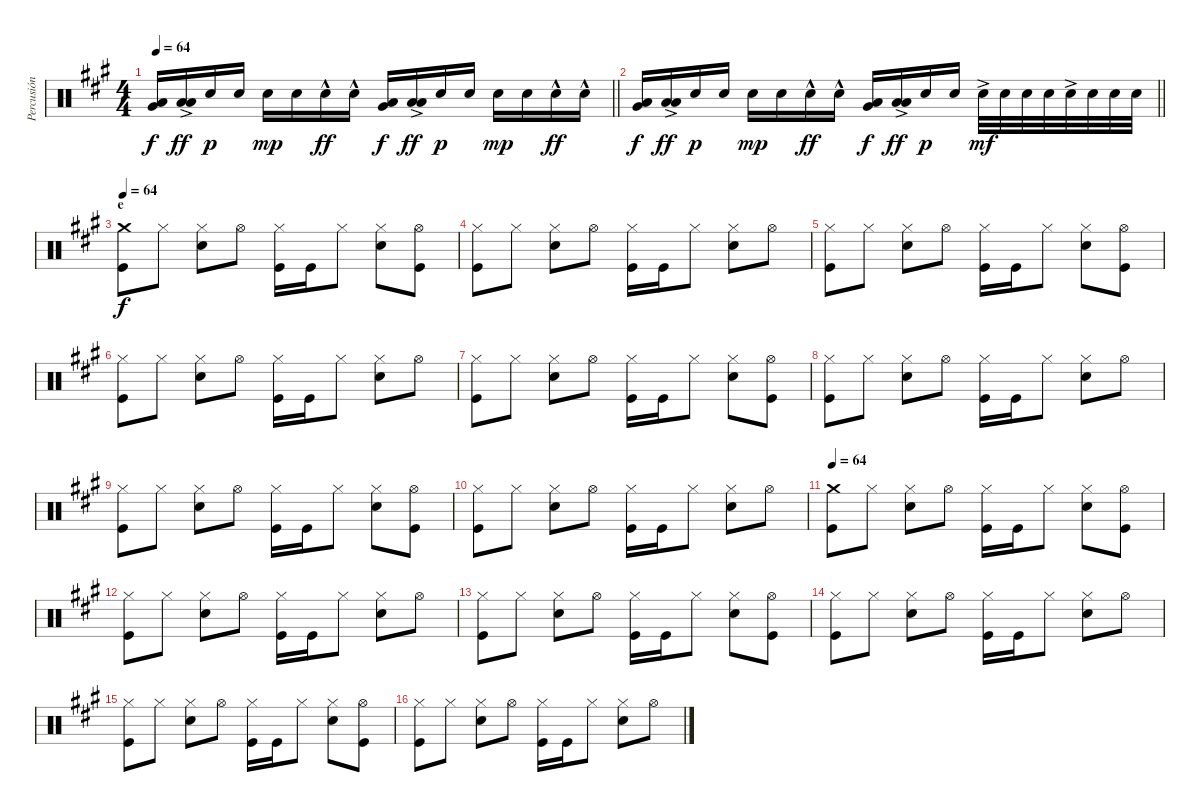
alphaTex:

\track ("Percusión" "Percusión") {instrument percussion}
\staff {score}
\articulation defaults
\ts (4 4)
\tempo 64
\clef neutral
\barLineRight lightlight
\ks a
("Very Low Tom (hit)" "Low Tom (hit)").16{dy f} ("Low Floor Tom (hit)" "Low Tom (hit)"{ac}).16{dy ff} "Snare (hit) 2".16{dy p} "Snare (hit) 2".16 "Snare (hit) 2".16{dy mp} "Snare (hit) 2".16 "Snare (hit) 2"{hac}.16{dy ff} "Snare (hit) 2"{hac}.16 ("Very Low Tom (hit)" "Low Tom (hit)").16{dy f} ("Low Floor Tom (hit)" "Low Tom (hit)"{ac}).16{dy ff} "Snare (hit) 2".16{dy p} "Snare (hit) 2".16 "Snare (hit) 2".16{dy mp} "Snare (hit) 2".16 "Snare (hit) 2"{hac}.16{dy ff} "Snare (hit) 2"{hac}.16 |
\barLineRight lightlight
("Very Low Tom (hit)" "Low Tom (hit)").16{dy f} ("Low Floor Tom (hit)" "Low Tom (hit)"{ac}).16{dy ff} "Snare (hit) 2".16{dy p} "Snare (hit) 2".16 "Snare (hit) 2".16{dy mp} "Snare (hit) 2".16 "Snare (hit) 2"{hac}.16{dy ff} "Snare (hit) 2"{hac}.16 ("Very Low Tom (hit)" "Low Tom (hit)").16{dy f} ("Low Floor Tom (hit)" "Low Tom (hit)"{ac}).16{dy ff} "Snare (hit) 2".16{dy p} "Snare (hit) 2".16 "Snare (hit) 2"{ac}.32{dy mf} "Snare (hit) 2".32 "Snare (hit) 2".32 "Snare (hit) 2".32 "Snare (hit) 2"{ac}.32 "Snare (hit) 2".32 "Snare (hit) 2".32 "Snare (hit) 2".32 |
\section ("" "e")
\tempo 64
("Kick (hit)" "Crash medium (hit)").8{dy f} "Hi-Hat (closed)".8 ("Hi-Hat (closed)" "Snare (hit) 2").8 "Hi-Hat (open)".8 ("Kick (hit)" "Hi-Hat (closed)").16 "Kick (hit)".16 "Hi-Hat (closed)".8 ("Hi-Hat (closed)" "Snare (hit) 2").8 ("Kick (hit)" "Hi-Hat (open)").8 |
("Hi-Hat (closed)" "Kick (hit)").8 "Hi-Hat (closed)".8 ("Hi-Hat (closed)" "Snare (hit) 2").8 "Hi-Hat (open)".8 ("Kick (hit)" "Hi-Hat (closed)").16 "Kick (hit)".16 "Hi-Hat (closed)".8 ("Hi-Hat (closed)" "Snare (hit) 2").8 "Hi-Hat (open)".8 |
("Hi-Hat (closed)" "Kick (hit)").8 "Hi-Hat (closed)".8 ("Hi-Hat (closed)" "Snare (hit) 2").8 "Hi-Hat (open)".8 ("Kick (hit)" "Hi-Hat (closed)").16 "Kick (hit)".16 "Hi-Hat (closed)".8 ("Hi-Hat (closed)" "Snare (hit) 2").8 ("Kick (hit)" "Hi-Hat (open)").8 |
("Hi-Hat (closed)" "Kick (hit)").8 "Hi-Hat (closed)".8 ("Hi-Hat (closed)" "Snare (hit) 2").8 "Hi-Hat (open)".8 ("Kick (hit)" "Hi-Hat (closed)").16 "Kick (hit)".16 "Hi-Hat (closed)".8 ("Hi-Hat (closed)" "Snare (hit) 2").8 "Hi-Hat (open)".8 |
("Hi-Hat (closed)" "Kick (hit)").8 "Hi-Hat (closed)".8 ("Hi-Hat (closed)" "Snare (hit) 2").8 "Hi-Hat (open)".8 ("Kick (hit)" "Hi-Hat (closed)").16 "Kick (hit)".16 "Hi-Hat (closed)".8 ("Hi-Hat (closed)" "Snare (hit) 2").8 ("Kick (hit)" "Hi-Hat (open)").8 |
("Hi-Hat (closed)" "Kick (hit)").8 "Hi-Hat (closed)".8 ("Hi-Hat (closed)" "Snare (hit) 2").8 "Hi-Hat (open)".8 ("Kick (hit)" "Hi-Hat (closed)").16 "Kick (hit)".16 "Hi-Hat (closed)".8 ("Hi-Hat (closed)" "Snare (hit) 2").8 "Hi-Hat (open)".8 |
("Hi-Hat (closed)" "Kick (hit)").8 "Hi-Hat (closed)".8 ("Hi-Hat (closed)" "Snare (hit) 2").8 "Hi-Hat (open)".8 ("Kick (hit)" "Hi-Hat (closed)").16 "Kick (hit)".16 "Hi-Hat (closed)".8 ("Hi-Hat (closed)" "Snare (hit) 2").8 ("Kick (hit)" "Hi-Hat (open)").8 |
("Hi-Hat (closed)" "Kick (hit)").8 "Hi-Hat (closed)".8 ("Hi-Hat (closed)" "Snare (hit) 2").8 "Hi-Hat (open)".8 ("Kick (hit)" "Hi-Hat (closed)").16 "Kick (hit)".16 "Hi-Hat (closed)".8 ("Hi-Hat (closed)" "Snare (hit) 2").8 "Hi-Hat (open)".8 |
\tempo 64
("Kick (hit)" "Crash medium (hit)").8 "Hi-Hat (closed)".8 ("Hi-Hat (closed)" "Snare (hit) 2").8 "Hi-Hat (open)".8 ("Kick (hit)" "Hi-Hat (closed)").16 "Kick (hit)".16 "Hi-Hat (closed)".8 ("Hi-Hat (closed)" "Snare (hit) 2").8 ("Kick (hit)" "Hi-Hat (open)").8 |
("Hi-Hat (closed)" "Kick (hit)").8 "Hi-Hat (closed)".8 ("Hi-Hat (closed)" "Snare (hit) 2").8 "Hi-Hat (open)".8 ("Kick (hit)" "Hi-Hat (closed)").16 "Kick (hit)".16 "Hi-Hat (closed)".8 ("Hi-Hat (closed)" "Snare (hit) 2").8 "Hi-Hat (open)".8 |
("Hi-Hat (closed)" "Kick (hit)").8 "Hi-Hat (closed)".8 ("Hi-Hat (closed)" "Snare (hit) 2").8 "Hi-Hat (open)".8 ("Kick (hit)" "Hi-Hat (closed)").16 "Kick (hit)".16 "Hi-Hat (closed)".8 ("Hi-Hat (closed)" "Snare (hit) 2").8 ("Kick (hit)" "Hi-Hat (open)").8 |
("Hi-Hat (closed)" "Kick (hit)").8 "Hi-Hat (closed)".8 ("Hi-Hat (closed)" "Snare (hit) 2").8 "Hi-Hat (open)".8 ("Kick (hit)" "Hi-Hat (closed)").16 "Kick (hit)".16 "Hi-Hat (closed)".8 ("Hi-Hat (closed)" "Snare (hit) 2").8 "Hi-Hat (open)".8 |
("Hi-Hat (closed)" "Kick (hit)").8 "Hi-Hat (closed)".8 ("Hi-Hat (closed)" "Snare (hit) 2").8 "Hi-Hat (open)".8 ("Kick (hit)" "Hi-Hat (closed)").16 "Kick (hit)".16 "Hi-Hat (closed)".8 ("Hi-Hat (closed)" "Snare (hit) 2").8 ("Kick (hit)" "Hi-Hat (open)").8 |
("Hi-Hat (closed)" "Kick (hit)").8 "Hi-Hat (closed)".8 ("Hi-Hat (closed)" "Snare (hit) 2").8 "Hi-Hat (open)".8 ("Kick (hit)" "Hi-Hat (closed)").16 "Kick (hit)".16 "Hi-Hat (closed)".8 ("Hi-Hat (closed)" "Snare (hit) 2").8 "Hi-Hat (open)".8
